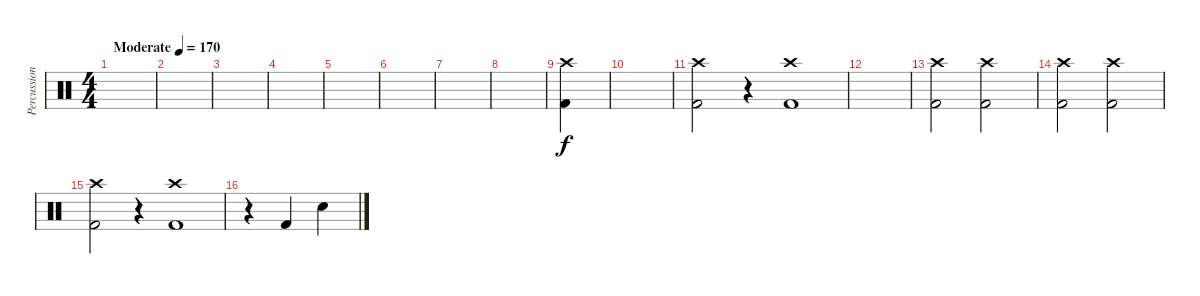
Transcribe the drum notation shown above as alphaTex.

\track ("Percussion" "Percussion") {instrument percussion}
\staff {score}
\articulation defaults
\ts (4 4)
\tempo (170 "Moderate")
\clef neutral
\ks c
|
|
|
|
|
|
|
|
("Crash high (hit)" "Kick (hit) 2").4 |
|
("Crash high (hit)" "Kick (hit) 2").2 r.4 ("Crash high (hit)" "Kick (hit) 2").1 |
|
("Crash high (hit)" "Kick (hit) 2").2 ("Crash high (hit)" "Kick (hit) 2").2 |
("Crash high (hit)" "Kick (hit) 2").2 ("Crash high (hit)" "Kick (hit) 2").2 |
("Crash high (hit)" "Kick (hit) 2").2 r.4 ("Crash high (hit)" "Kick (hit) 2").1 |
r.4 "Kick (hit) 2".4 "Snare (hit) 2".4
